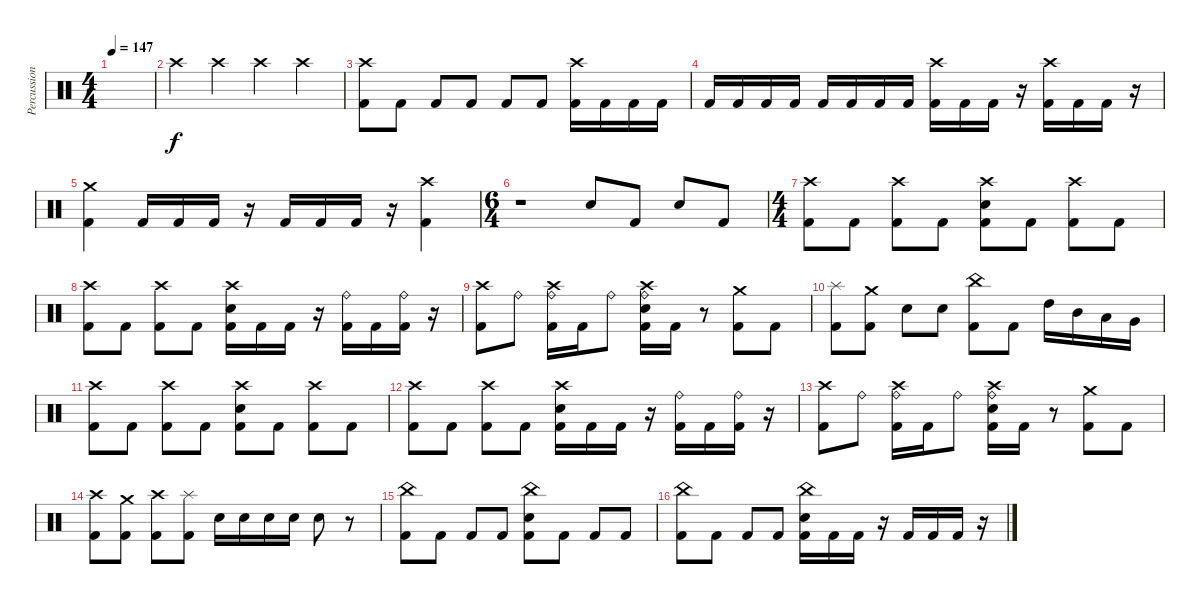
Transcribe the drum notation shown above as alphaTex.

\track ("Percussion" "Percussion") {instrument percussion}
\staff {score}
\articulation defaults
\ts (4 4)
\tempo 147
\clef neutral
\ks c
|
"Crash high (hit)".4 "Crash high (hit)".4 "Crash high (hit)".4 "Crash high (hit)".4 |
("Crash high (hit)" "Kick (hit) 2").8 "Kick (hit) 2".8 "Kick (hit) 2".8 "Kick (hit) 2".8 "Kick (hit) 2".8 "Kick (hit) 2".8 ("Crash high (hit)" "Kick (hit) 2").16 "Kick (hit) 2".16 "Kick (hit) 2".16 "Kick (hit) 2".16 |
"Kick (hit) 2".16 "Kick (hit) 2".16 "Kick (hit) 2".16 "Kick (hit) 2".16 "Kick (hit) 2".16 "Kick (hit) 2".16 "Kick (hit) 2".16 "Kick (hit) 2".16 ("Crash high (hit)" "Kick (hit) 2").16 "Kick (hit) 2".16 "Kick (hit) 2".16 r.16 ("Crash high (hit)" "Kick (hit) 2").16 "Kick (hit) 2".16 "Kick (hit) 2".16 r.16 |
("Crash medium (hit)" "Kick (hit) 2").4 "Kick (hit) 2".16 "Kick (hit) 2".16 "Kick (hit) 2".16 r.16 "Kick (hit) 2".16 "Kick (hit) 2".16 "Kick (hit) 2".16 r.16 ("Crash high (hit)" "Kick (hit) 2").4 |
\ts (6 4)
r.1 "Electric Snare (hit)".8 "Kick (hit) 2".8 "Electric Snare (hit)".8 "Kick (hit) 2".8 |
\ts (4 4)
("Crash high (hit)" "Kick (hit) 2").8 "Kick (hit) 2".8 ("Crash high (hit)" "Kick (hit) 2").8 "Kick (hit) 2".8 ("Crash high (hit)" "Electric Snare (hit)" "Kick (hit) 2").8 "Kick (hit) 2".8 ("Crash high (hit)" "Kick (hit) 2").8 "Kick (hit) 2".8 |
("Crash high (hit)" "Kick (hit) 2").8 "Kick (hit) 2".8 ("Crash high (hit)" "Kick (hit) 2").8 "Kick (hit) 2".8 ("Crash high (hit)" "Electric Snare (hit)" "Kick (hit) 2").16 "Kick (hit) 2".16 "Kick (hit) 2".16 r.16 ("Ride (bell)" "Kick (hit) 2").16 "Kick (hit) 2".16 ("Ride (bell)" "Kick (hit) 2").16 r.16 |
("Crash high (hit)" "Kick (hit) 2").8 "Ride (bell)".8 ("Crash high (hit)" "Ride (bell)" "Kick (hit) 2").16 "Kick (hit) 2".16 "Ride (bell)".8 ("Crash high (hit)" "Ride (bell)" "Electric Snare (hit)" "Kick (hit) 2").16 "Kick (hit) 2".16 r.8 ("Crash medium (hit)" "Kick (hit) 2").8 "Kick (hit) 2".8 |
("Splash (hit)" "Kick (hit) 2").8 ("Crash medium (hit)" "Kick (hit) 2").8 "Electric Snare (hit)".8 "Electric Snare (hit)".8 ("China (hit)" "Kick (hit) 2").8 "Kick (hit) 2".8 "High Tom (hit)".16 "Mid Tom (hit)".16 "Low Tom (hit)".16 "Very Low Tom (hit)".16 |
("Crash high (hit)" "Kick (hit) 2").8 "Kick (hit) 2".8 ("Crash high (hit)" "Kick (hit) 2").8 "Kick (hit) 2".8 ("Crash high (hit)" "Electric Snare (hit)" "Kick (hit) 2").8 "Kick (hit) 2".8 ("Crash high (hit)" "Kick (hit) 2").8 "Kick (hit) 2".8 |
("Crash high (hit)" "Kick (hit) 2").8 "Kick (hit) 2".8 ("Crash high (hit)" "Kick (hit) 2").8 "Kick (hit) 2".8 ("Crash high (hit)" "Electric Snare (hit)" "Kick (hit) 2").16 "Kick (hit) 2".16 "Kick (hit) 2".16 r.16 ("Ride (bell)" "Kick (hit) 2").16 "Kick (hit) 2".16 ("Ride (bell)" "Kick (hit) 2").16 r.16 |
("Crash high (hit)" "Kick (hit) 2").8 "Ride (bell)".8 ("Crash high (hit)" "Ride (bell)" "Kick (hit) 2").16 "Kick (hit) 2".16 "Ride (bell)".8 ("Crash high (hit)" "Ride (bell)" "Electric Snare (hit)" "Kick (hit) 2").16 "Kick (hit) 2".16 r.8 ("Crash medium (hit)" "Kick (hit) 2").8 "Kick (hit) 2".8 |
("Crash high (hit)" "Kick (hit) 2").8 ("Crash medium (hit)" "Kick (hit) 2").8 ("Crash high (hit)" "Kick (hit) 2").8 ("Splash (hit)" "Kick (hit) 2").8 "Electric Snare (hit)".16 "Electric Snare (hit)".16 "Electric Snare (hit)".16 "Electric Snare (hit)".16 "Electric Snare (hit)".8 r.8 |
("China (hit)" "Kick (hit) 2").8 "Kick (hit) 2".8 "Kick (hit) 2".8 "Kick (hit) 2".8 ("China (hit)" "Electric Snare (hit)" "Kick (hit) 2").8 "Kick (hit) 2".8 "Kick (hit) 2".8 "Kick (hit) 2".8 |
("China (hit)" "Kick (hit) 2").8 "Kick (hit) 2".8 "Kick (hit) 2".8 "Kick (hit) 2".8 ("China (hit)" "Electric Snare (hit)" "Kick (hit) 2").16 "Kick (hit) 2".16 "Kick (hit) 2".16 r.16 "Kick (hit) 2".16 "Kick (hit) 2".16 "Kick (hit) 2".16 r.16
